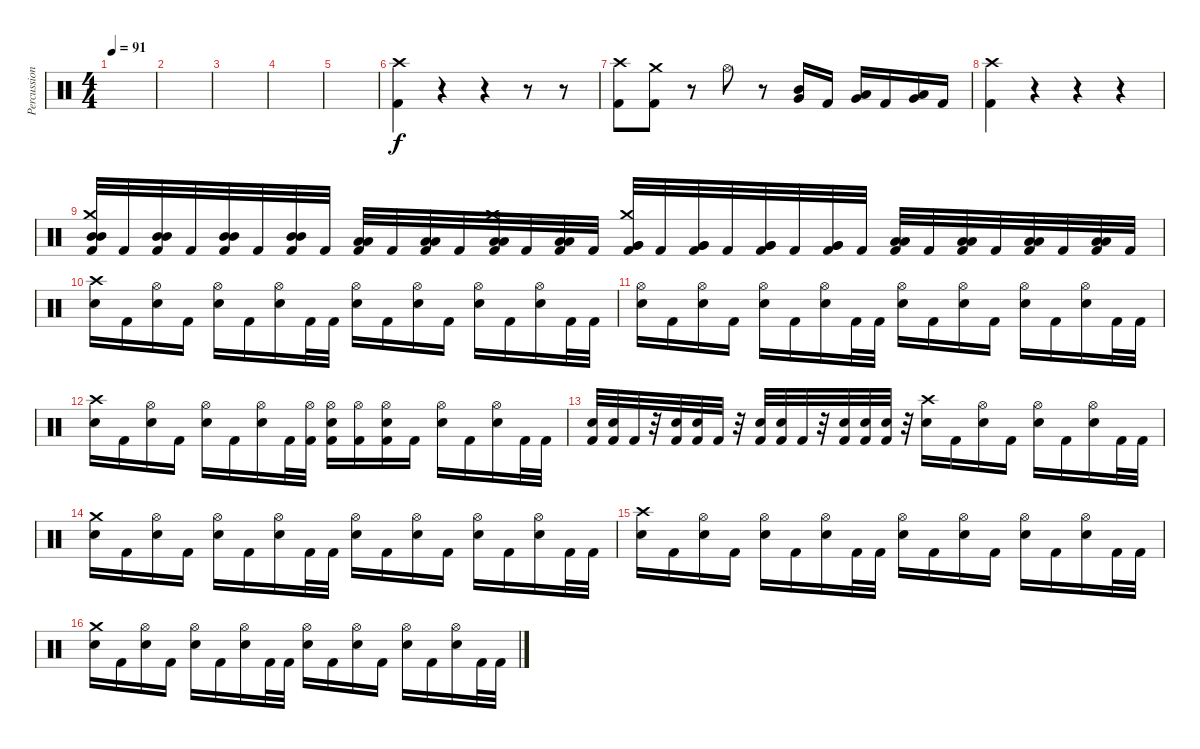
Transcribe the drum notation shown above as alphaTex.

\track ("Percussion" "Percussion") {instrument percussion}
\staff {score}
\articulation defaults
\ts (4 4)
\tempo 91
\clef neutral
\ks c
|
|
|
|
|
("Crash high (hit)" "Kick (hit) 2").4 r.4 r.4 r.8 r.8 |
("Crash high (hit)" "Kick (hit) 2").8 ("Crash medium (hit)" "Kick (hit) 2").8 r.8 "Hi-Hat (open)".8 r.8 ("Mid Tom (hit)" "Very Low Tom (hit)").16 "Kick (hit) 2".16 ("Low Tom (hit)" "Very Low Tom (hit)").16 "Kick (hit) 2".16 ("Very Low Tom (hit)" "Low Floor Tom (hit)").16 "Kick (hit) 2".16 |
("Crash high (hit)" "Kick (hit) 2").4 r.4 r.4 r.4 |
("Mid Tom (hit)" "Mid Tom (hit)" "Crash medium (hit)" "Kick (hit) 2").32 "Kick (hit) 2".32 ("Mid Tom (hit)" "Mid Tom (hit)" "Kick (hit) 2").32 "Kick (hit) 2".32 ("Mid Tom (hit)" "Mid Tom (hit)" "Kick (hit) 2").32 "Kick (hit) 2".32 ("Mid Tom (hit)" "Mid Tom (hit)" "Kick (hit) 2").32 "Kick (hit) 2".32 ("Low Tom (hit)" "Low Tom (hit)" "Kick (hit) 2").32 "Kick (hit) 2".32 ("Low Tom (hit)" "Low Tom (hit)" "Kick (hit) 2").32 "Kick (hit) 2".32 ("Low Tom (hit)" "Low Tom (hit)" "Crash medium (hit)" "Kick (hit) 2").32 "Kick (hit) 2".32 ("Low Tom (hit)" "Low Tom (hit)" "Kick (hit) 2").32 "Kick (hit) 2".32 ("Very Low Tom (hit)" "Very Low Tom (hit)" "Crash medium (hit)" "Kick (hit) 2").32 "Kick (hit) 2".32 ("Very Low Tom (hit)" "Very Low Tom (hit)" "Kick (hit) 2").32 "Kick (hit) 2".32 ("Very Low Tom (hit)" "Very Low Tom (hit)" "Kick (hit) 2").32 "Kick (hit) 2".32 ("Very Low Tom (hit)" "Very Low Tom (hit)" "Kick (hit) 2").32 "Kick (hit) 2".32 ("Low Floor Tom (hit)" "Low Floor Tom (hit)" "Kick (hit) 2").32 "Kick (hit) 2".32 ("Low Floor Tom (hit)" "Low Floor Tom (hit)" "Kick (hit) 2").32 "Kick (hit) 2".32 ("Low Floor Tom (hit)" "Low Floor Tom (hit)" "Kick (hit) 2").32 "Kick (hit) 2".32 ("Low Floor Tom (hit)" "Low Floor Tom (hit)" "Kick (hit) 2").32 "Kick (hit) 2".32 |
("Crash high (hit)" "Electric Snare (hit)").16 "Kick (hit) 2".16 ("Hi-Hat (open)" "Electric Snare (hit)").16 "Kick (hit) 2".16 ("Hi-Hat (open)" "Electric Snare (hit)").16 "Kick (hit) 2".16 ("Hi-Hat (open)" "Electric Snare (hit)").16 "Kick (hit) 2".32 "Kick (hit) 2".32 ("Hi-Hat (open)" "Electric Snare (hit)").16 "Kick (hit) 2".16 ("Hi-Hat (open)" "Electric Snare (hit)").16 "Kick (hit) 2".16 ("Hi-Hat (open)" "Electric Snare (hit)").16 "Kick (hit) 2".16 ("Hi-Hat (open)" "Electric Snare (hit)").16 "Kick (hit) 2".32 "Kick (hit) 2".32 |
("Hi-Hat (open)" "Electric Snare (hit)").16 "Kick (hit) 2".16 ("Hi-Hat (open)" "Electric Snare (hit)").16 "Kick (hit) 2".16 ("Hi-Hat (open)" "Electric Snare (hit)").16 "Kick (hit) 2".16 ("Hi-Hat (open)" "Electric Snare (hit)").16 "Kick (hit) 2".32 "Kick (hit) 2".32 ("Hi-Hat (open)" "Electric Snare (hit)").16 "Kick (hit) 2".16 ("Hi-Hat (open)" "Electric Snare (hit)").16 "Kick (hit) 2".16 ("Hi-Hat (open)" "Electric Snare (hit)").16 "Kick (hit) 2".16 ("Hi-Hat (open)" "Electric Snare (hit)").16 "Kick (hit) 2".32 "Kick (hit) 2".32 |
("Crash high (hit)" "Electric Snare (hit)").16 "Kick (hit) 2".16 ("Hi-Hat (open)" "Electric Snare (hit)").16 "Kick (hit) 2".16 ("Hi-Hat (open)" "Electric Snare (hit)").16 "Kick (hit) 2".16 ("Hi-Hat (open)" "Electric Snare (hit)").16 "Kick (hit) 2".32 ("Hi-Hat (open)" "Kick (hit) 2").32 ("Hi-Hat (open)" "Electric Snare (hit)" "Kick (hit) 2").16 ("Hi-Hat (open)" "Kick (hit) 2").16 ("Hi-Hat (open)" "Electric Snare (hit)" "Kick (hit) 2").16 "Kick (hit) 2".16 ("Hi-Hat (open)" "Electric Snare (hit)").16 "Kick (hit) 2".16 ("Hi-Hat (open)" "Electric Snare (hit)").16 "Kick (hit) 2".32 "Kick (hit) 2".32 |
("Snare (hit) 2" "Kick (hit) 2").32 ("Snare (hit) 2" "Kick (hit) 2").32 "Kick (hit) 2".32 r.32 ("Snare (hit) 2" "Kick (hit) 2").32 ("Snare (hit) 2" "Kick (hit) 2").32 "Kick (hit) 2".32 r.32 ("Snare (hit) 2" "Kick (hit) 2").32 ("Snare (hit) 2" "Kick (hit) 2").32 "Kick (hit) 2".32 r.32 ("Snare (hit) 2" "Kick (hit) 2").32 ("Snare (hit) 2" "Kick (hit) 2").32 ("Snare (hit) 2" "Kick (hit) 2").32 r.32 ("Crash high (hit)" "Electric Snare (hit)").16 "Kick (hit) 2".16 ("Hi-Hat (open)" "Electric Snare (hit)").16 "Kick (hit) 2".16 ("Hi-Hat (open)" "Electric Snare (hit)").16 "Kick (hit) 2".16 ("Hi-Hat (open)" "Electric Snare (hit)").16 "Kick (hit) 2".32 "Kick (hit) 2".32 |
("Crash medium (hit)" "Electric Snare (hit)").16 "Kick (hit) 2".16 ("Hi-Hat (open)" "Electric Snare (hit)").16 "Kick (hit) 2".16 ("Hi-Hat (open)" "Electric Snare (hit)").16 "Kick (hit) 2".16 ("Hi-Hat (open)" "Electric Snare (hit)").16 "Kick (hit) 2".32 "Kick (hit) 2".32 ("Hi-Hat (open)" "Electric Snare (hit)").16 "Kick (hit) 2".16 ("Hi-Hat (open)" "Electric Snare (hit)").16 "Kick (hit) 2".16 ("Hi-Hat (open)" "Electric Snare (hit)").16 "Kick (hit) 2".16 ("Hi-Hat (open)" "Electric Snare (hit)").16 "Kick (hit) 2".32 "Kick (hit) 2".32 |
("Crash high (hit)" "Electric Snare (hit)").16 "Kick (hit) 2".16 ("Hi-Hat (open)" "Electric Snare (hit)").16 "Kick (hit) 2".16 ("Hi-Hat (open)" "Electric Snare (hit)").16 "Kick (hit) 2".16 ("Hi-Hat (open)" "Electric Snare (hit)").16 "Kick (hit) 2".32 "Kick (hit) 2".32 ("Hi-Hat (open)" "Electric Snare (hit)").16 "Kick (hit) 2".16 ("Hi-Hat (open)" "Electric Snare (hit)").16 "Kick (hit) 2".16 ("Hi-Hat (open)" "Electric Snare (hit)").16 "Kick (hit) 2".16 ("Hi-Hat (open)" "Electric Snare (hit)").16 "Kick (hit) 2".32 "Kick (hit) 2".32 |
("Crash medium (hit)" "Electric Snare (hit)").16 "Kick (hit) 2".16 ("Hi-Hat (open)" "Electric Snare (hit)").16 "Kick (hit) 2".16 ("Hi-Hat (open)" "Electric Snare (hit)").16 "Kick (hit) 2".16 ("Hi-Hat (open)" "Electric Snare (hit)").16 "Kick (hit) 2".32 "Kick (hit) 2".32 ("Hi-Hat (open)" "Electric Snare (hit)").16 "Kick (hit) 2".16 ("Hi-Hat (open)" "Electric Snare (hit)").16 "Kick (hit) 2".16 ("Hi-Hat (open)" "Electric Snare (hit)").16 "Kick (hit) 2".16 ("Hi-Hat (open)" "Electric Snare (hit)").16 "Kick (hit) 2".32 "Kick (hit) 2".32
